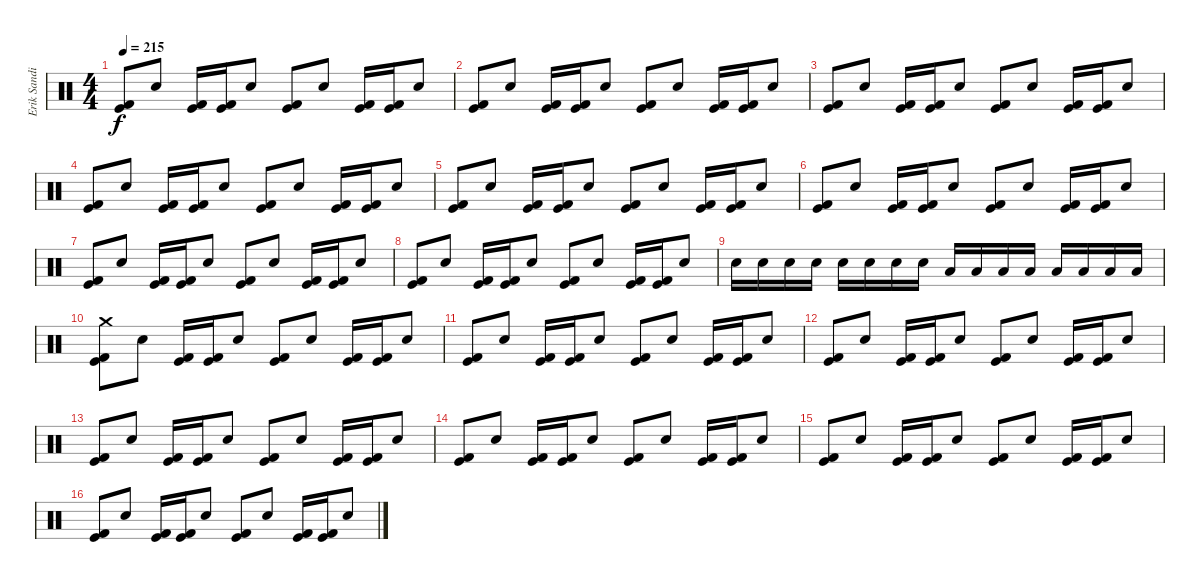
\track ("Erik Sandin" "Erik Sandi") {instrument percussion}
\staff {score}
\articulation defaults
\ts (4 4)
\tempo 215
\clef neutral
\ks c
("Kick (hit) 2" "Kick (hit)").8{dy f} "Electric Snare (hit)".8 ("Kick (hit) 2" "Kick (hit)").16 ("Kick (hit) 2" "Kick (hit)").16 "Electric Snare (hit)".8 ("Kick (hit) 2" "Kick (hit)").8 "Electric Snare (hit)".8 ("Kick (hit) 2" "Kick (hit)").16 ("Kick (hit) 2" "Kick (hit)").16 "Electric Snare (hit)".8 |
("Kick (hit) 2" "Kick (hit)").8 "Electric Snare (hit)".8 ("Kick (hit) 2" "Kick (hit)").16 ("Kick (hit) 2" "Kick (hit)").16 "Electric Snare (hit)".8 ("Kick (hit) 2" "Kick (hit)").8 "Electric Snare (hit)".8 ("Kick (hit) 2" "Kick (hit)").16 ("Kick (hit) 2" "Kick (hit)").16 "Electric Snare (hit)".8 |
("Kick (hit) 2" "Kick (hit)").8 "Electric Snare (hit)".8 ("Kick (hit) 2" "Kick (hit)").16 ("Kick (hit) 2" "Kick (hit)").16 "Electric Snare (hit)".8 ("Kick (hit) 2" "Kick (hit)").8 "Electric Snare (hit)".8 ("Kick (hit) 2" "Kick (hit)").16 ("Kick (hit) 2" "Kick (hit)").16 "Electric Snare (hit)".8 |
("Kick (hit) 2" "Kick (hit)").8 "Electric Snare (hit)".8 ("Kick (hit) 2" "Kick (hit)").16 ("Kick (hit) 2" "Kick (hit)").16 "Electric Snare (hit)".8 ("Kick (hit) 2" "Kick (hit)").8 "Electric Snare (hit)".8 ("Kick (hit) 2" "Kick (hit)").16 ("Kick (hit) 2" "Kick (hit)").16 "Electric Snare (hit)".8 |
("Kick (hit) 2" "Kick (hit)").8 "Electric Snare (hit)".8 ("Kick (hit) 2" "Kick (hit)").16 ("Kick (hit) 2" "Kick (hit)").16 "Electric Snare (hit)".8 ("Kick (hit) 2" "Kick (hit)").8 "Electric Snare (hit)".8 ("Kick (hit) 2" "Kick (hit)").16 ("Kick (hit) 2" "Kick (hit)").16 "Electric Snare (hit)".8 |
("Kick (hit) 2" "Kick (hit)").8 "Electric Snare (hit)".8 ("Kick (hit) 2" "Kick (hit)").16 ("Kick (hit) 2" "Kick (hit)").16 "Electric Snare (hit)".8 ("Kick (hit) 2" "Kick (hit)").8 "Electric Snare (hit)".8 ("Kick (hit) 2" "Kick (hit)").16 ("Kick (hit) 2" "Kick (hit)").16 "Electric Snare (hit)".8 |
("Kick (hit) 2" "Kick (hit)").8 "Electric Snare (hit)".8 ("Kick (hit) 2" "Kick (hit)").16 ("Kick (hit) 2" "Kick (hit)").16 "Electric Snare (hit)".8 ("Kick (hit) 2" "Kick (hit)").8 "Electric Snare (hit)".8 ("Kick (hit) 2" "Kick (hit)").16 ("Kick (hit) 2" "Kick (hit)").16 "Electric Snare (hit)".8 |
("Kick (hit) 2" "Kick (hit)").8 "Electric Snare (hit)".8 ("Kick (hit) 2" "Kick (hit)").16 ("Kick (hit) 2" "Kick (hit)").16 "Electric Snare (hit)".8 ("Kick (hit) 2" "Kick (hit)").8 "Electric Snare (hit)".8 ("Kick (hit) 2" "Kick (hit)").16 ("Kick (hit) 2" "Kick (hit)").16 "Electric Snare (hit)".8 |
"Electric Snare (hit)".16 "Electric Snare (hit)".16 "Electric Snare (hit)".16 "Electric Snare (hit)".16 "Electric Snare (hit)".16 "Electric Snare (hit)".16 "Electric Snare (hit)".16 "Electric Snare (hit)".16 "Low Tom (hit)".16 "Low Tom (hit)".16 "Low Tom (hit)".16 "Low Tom (hit)".16 "Low Tom (hit)".16 "Low Tom (hit)".16 "Low Tom (hit)".16 "Low Tom (hit)".16 |
("Crash medium (hit)" "Kick (hit) 2" "Kick (hit)").8 "Electric Snare (hit)".8 ("Kick (hit) 2" "Kick (hit)").16 ("Kick (hit) 2" "Kick (hit)").16 "Electric Snare (hit)".8 ("Kick (hit) 2" "Kick (hit)").8 "Electric Snare (hit)".8 ("Kick (hit) 2" "Kick (hit)").16 ("Kick (hit) 2" "Kick (hit)").16 "Electric Snare (hit)".8 |
("Kick (hit) 2" "Kick (hit)").8 "Electric Snare (hit)".8 ("Kick (hit) 2" "Kick (hit)").16 ("Kick (hit) 2" "Kick (hit)").16 "Electric Snare (hit)".8 ("Kick (hit) 2" "Kick (hit)").8 "Electric Snare (hit)".8 ("Kick (hit) 2" "Kick (hit)").16 ("Kick (hit) 2" "Kick (hit)").16 "Electric Snare (hit)".8 |
("Kick (hit) 2" "Kick (hit)").8 "Electric Snare (hit)".8 ("Kick (hit) 2" "Kick (hit)").16 ("Kick (hit) 2" "Kick (hit)").16 "Electric Snare (hit)".8 ("Kick (hit) 2" "Kick (hit)").8 "Electric Snare (hit)".8 ("Kick (hit) 2" "Kick (hit)").16 ("Kick (hit) 2" "Kick (hit)").16 "Electric Snare (hit)".8 |
("Kick (hit) 2" "Kick (hit)").8 "Electric Snare (hit)".8 ("Kick (hit) 2" "Kick (hit)").16 ("Kick (hit) 2" "Kick (hit)").16 "Electric Snare (hit)".8 ("Kick (hit) 2" "Kick (hit)").8 "Electric Snare (hit)".8 ("Kick (hit) 2" "Kick (hit)").16 ("Kick (hit) 2" "Kick (hit)").16 "Electric Snare (hit)".8 |
("Kick (hit) 2" "Kick (hit)").8 "Electric Snare (hit)".8 ("Kick (hit) 2" "Kick (hit)").16 ("Kick (hit) 2" "Kick (hit)").16 "Electric Snare (hit)".8 ("Kick (hit) 2" "Kick (hit)").8 "Electric Snare (hit)".8 ("Kick (hit) 2" "Kick (hit)").16 ("Kick (hit) 2" "Kick (hit)").16 "Electric Snare (hit)".8 |
("Kick (hit) 2" "Kick (hit)").8 "Electric Snare (hit)".8 ("Kick (hit) 2" "Kick (hit)").16 ("Kick (hit) 2" "Kick (hit)").16 "Electric Snare (hit)".8 ("Kick (hit) 2" "Kick (hit)").8 "Electric Snare (hit)".8 ("Kick (hit) 2" "Kick (hit)").16 ("Kick (hit) 2" "Kick (hit)").16 "Electric Snare (hit)".8 |
("Kick (hit) 2" "Kick (hit)").8 "Electric Snare (hit)".8 ("Kick (hit) 2" "Kick (hit)").16 ("Kick (hit) 2" "Kick (hit)").16 "Electric Snare (hit)".8 ("Kick (hit) 2" "Kick (hit)").8 "Electric Snare (hit)".8 ("Kick (hit) 2" "Kick (hit)").16 ("Kick (hit) 2" "Kick (hit)").16 "Electric Snare (hit)".8
